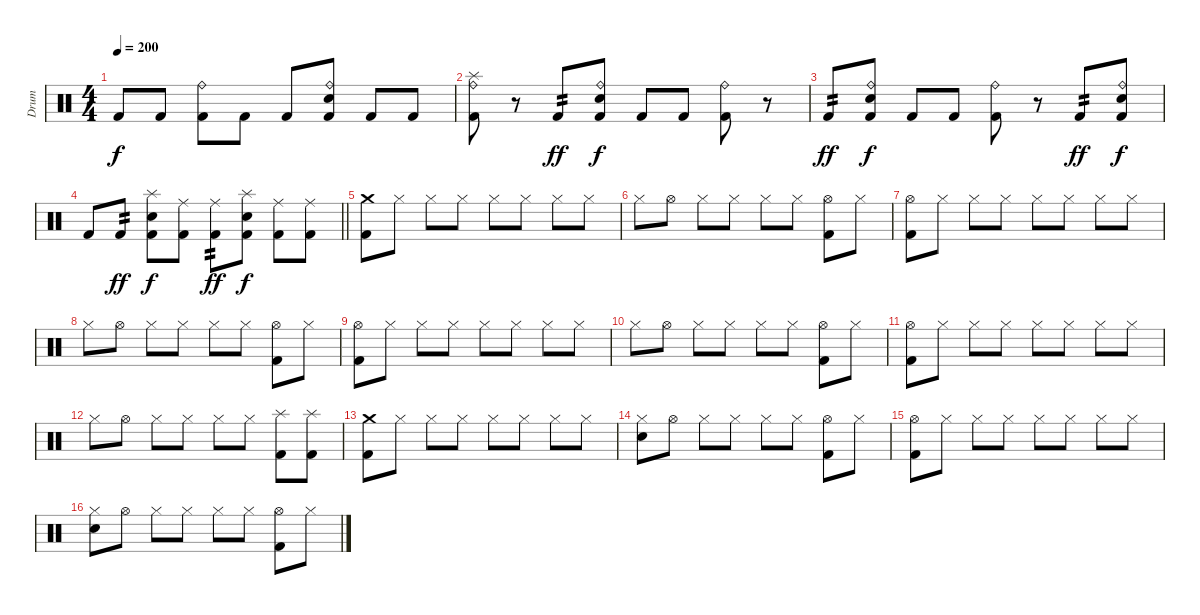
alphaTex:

\track ("Drum" "Drum") {instrument percussion}
\staff {score}
\articulation defaults
\ts (4 4)
\tempo 200
\clef neutral
\ks c "Kick (hit) 2".8{dy f} "Kick (hit) 2".8
("Ride (bell)" "Kick (hit) 2").8 "Kick (hit) 2".8 "Kick (hit) 2".8 ("Ride (bell)" "Snare (hit) 2" "Kick (hit) 2").8 "Kick (hit) 2".8 "Kick (hit) 2".8 |
("Ride (bell)" "Splash (hit)" "Kick (hit) 2").8 r.8 "Kick (hit) 2".8{tp 2 dy ff} ("Ride (bell)" "Snare (hit) 2" "Kick (hit) 2").8{dy f} "Kick (hit) 2".8 "Kick (hit) 2".8 ("Ride (bell)" "Kick (hit) 2").8 r.8 |
"Kick (hit) 2".8{tp 2 dy ff} ("Ride (bell)" "Snare (hit) 2" "Kick (hit) 2").8{dy f} "Kick (hit) 2".8 "Kick (hit) 2".8 ("Ride (bell)" "Kick (hit) 2").8 r.8 "Kick (hit) 2".8{tp 2 dy ff} ("Ride (bell)" "Snare (hit) 2" "Kick (hit) 2").8{dy f} |
\barLineRight lightlight "Kick (hit) 2".8 "Kick (hit) 2".8{tp 2 dy ff}
("Splash (hit)" "Snare (hit) 2" "Kick (hit) 2").8{dy f} ("Ride (middle)" "Kick (hit) 2").8 ("Ride (middle)" "Kick (hit) 2").8{tp 2 dy ff} ("Splash (hit)" "Snare (hit) 2" "Kick (hit) 2").8{dy f} ("Ride (middle)" "Kick (hit) 2").8 ("Ride (middle)" "Kick (hit) 2").8 |
("Crash medium (hit)" "Kick (hit) 2").8 "Hi-Hat (closed)".8 "Hi-Hat (closed)".8 "Hi-Hat (closed)".8 "Hi-Hat (closed)".8 "Hi-Hat (closed)".8 "Hi-Hat (closed)".8 "Hi-Hat (closed)".8 |
"Hi-Hat (closed)".8 "Hi-Hat (open)".8 "Hi-Hat (closed)".8 "Hi-Hat (closed)".8 "Hi-Hat (closed)".8 "Hi-Hat (closed)".8 ("Hi-Hat (open)" "Kick (hit) 2").8 "Hi-Hat (closed)".8 |
("Hi-Hat (open)" "Kick (hit) 2").8 "Hi-Hat (closed)".8 "Hi-Hat (closed)".8 "Hi-Hat (closed)".8 "Hi-Hat (closed)".8 "Hi-Hat (closed)".8 "Hi-Hat (closed)".8 "Hi-Hat (closed)".8 |
"Hi-Hat (closed)".8 "Hi-Hat (open)".8 "Hi-Hat (closed)".8 "Hi-Hat (closed)".8 "Hi-Hat (closed)".8 "Hi-Hat (closed)".8 ("Hi-Hat (open)" "Kick (hit) 2").8 "Hi-Hat (closed)".8 |
("Hi-Hat (open)" "Kick (hit) 2").8 "Hi-Hat (closed)".8 "Hi-Hat (closed)".8 "Hi-Hat (closed)".8 "Hi-Hat (closed)".8 "Hi-Hat (closed)".8 "Hi-Hat (closed)".8 "Hi-Hat (closed)".8 |
"Hi-Hat (closed)".8 "Hi-Hat (open)".8 "Hi-Hat (closed)".8 "Hi-Hat (closed)".8 "Hi-Hat (closed)".8 "Hi-Hat (closed)".8 ("Hi-Hat (open)" "Kick (hit) 2").8 "Hi-Hat (closed)".8 |
("Hi-Hat (open)" "Kick (hit) 2").8 "Hi-Hat (closed)".8 "Hi-Hat (closed)".8 "Hi-Hat (closed)".8 "Hi-Hat (closed)".8 "Hi-Hat (closed)".8 "Hi-Hat (closed)".8 "Hi-Hat (closed)".8 |
"Hi-Hat (closed)".8 "Hi-Hat (open)".8 "Hi-Hat (closed)".8 "Hi-Hat (closed)".8 "Hi-Hat (closed)".8 "Hi-Hat (closed)".8 ("Splash (hit)" "Kick (hit) 2").8 ("Splash (hit)" "Kick (hit) 2").8 |
("Crash medium (hit)" "Kick (hit) 2").8 "Hi-Hat (closed)".8 "Hi-Hat (closed)".8 "Hi-Hat (closed)".8 "Hi-Hat (closed)".8 "Hi-Hat (closed)".8 "Hi-Hat (closed)".8 "Hi-Hat (closed)".8 |
("Hi-Hat (closed)" "Snare (hit) 2").8 "Hi-Hat (open)".8 "Hi-Hat (closed)".8 "Hi-Hat (closed)".8 "Hi-Hat (closed)".8 "Hi-Hat (closed)".8 ("Hi-Hat (open)" "Kick (hit) 2").8 "Hi-Hat (closed)".8 |
("Hi-Hat (open)" "Kick (hit) 2").8 "Hi-Hat (closed)".8 "Hi-Hat (closed)".8 "Hi-Hat (closed)".8 "Hi-Hat (closed)".8 "Hi-Hat (closed)".8 "Hi-Hat (closed)".8 "Hi-Hat (closed)".8 |
("Hi-Hat (closed)" "Snare (hit) 2").8 "Hi-Hat (open)".8 "Hi-Hat (closed)".8 "Hi-Hat (closed)".8 "Hi-Hat (closed)".8 "Hi-Hat (closed)".8 ("Hi-Hat (open)" "Kick (hit) 2").8 "Hi-Hat (closed)".8
